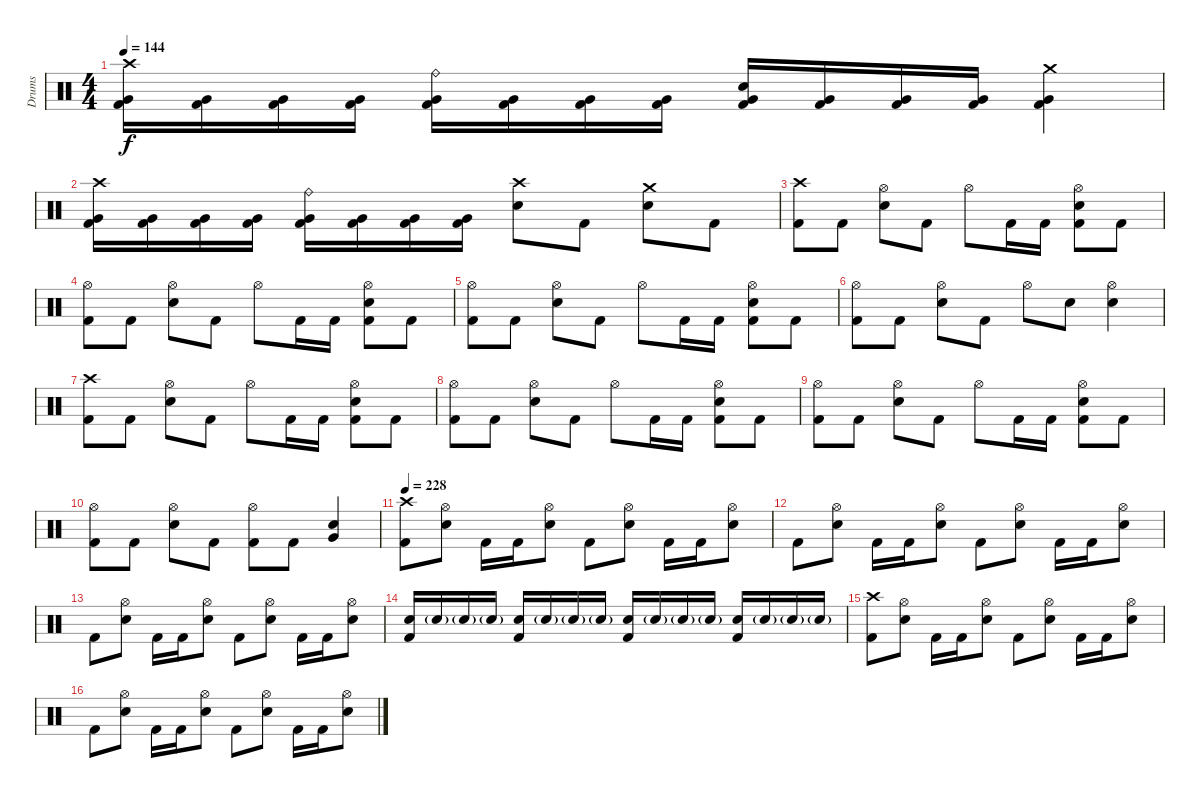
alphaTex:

\track ("Drums" "Drums") {instrument percussion}
\staff {score}
\articulation defaults
\ts (4 4)
\tempo 144
\clef neutral
\ks c
("Crash high (hit)" "Very Low Tom (hit)" "Kick (hit) 2").16{dy f} ("Very Low Tom (hit)" "Kick (hit) 2").16 ("Very Low Tom (hit)" "Kick (hit) 2").16 ("Very Low Tom (hit)" "Kick (hit) 2").16 ("Ride (bell)" "Very Low Tom (hit)" "Kick (hit) 2").16 ("Very Low Tom (hit)" "Kick (hit) 2").16 ("Very Low Tom (hit)" "Kick (hit) 2").16 ("Very Low Tom (hit)" "Kick (hit) 2").16 ("Electric Snare (hit)" "Very Low Tom (hit)" "Kick (hit) 2").16 ("Very Low Tom (hit)" "Kick (hit) 2").16 ("Very Low Tom (hit)" "Kick (hit) 2").16 ("Very Low Tom (hit)" "Kick (hit) 2").16 ("Crash medium (hit)" "Very Low Tom (hit)" "Kick (hit) 2").4 |
("Crash high (hit)" "Very Low Tom (hit)" "Kick (hit) 2").16 ("Very Low Tom (hit)" "Kick (hit) 2").16 ("Very Low Tom (hit)" "Kick (hit) 2").16 ("Very Low Tom (hit)" "Kick (hit) 2").16 ("Ride (bell)" "Very Low Tom (hit)" "Kick (hit) 2").16 ("Very Low Tom (hit)" "Kick (hit) 2").16 ("Very Low Tom (hit)" "Kick (hit) 2").16 ("Very Low Tom (hit)" "Kick (hit) 2").16 ("Crash high (hit)" "Electric Snare (hit)").8 "Kick (hit) 2".8 ("Crash medium (hit)" "Electric Snare (hit)").8 "Kick (hit) 2".8 |
("Crash high (hit)" "Kick (hit) 2").8 "Kick (hit) 2".8 ("Hi-Hat (open)" "Electric Snare (hit)").8 "Kick (hit) 2".8 "Hi-Hat (open)".8 "Kick (hit) 2".16 "Kick (hit) 2".16 ("Hi-Hat (open)" "Electric Snare (hit)" "Kick (hit) 2").8 "Kick (hit) 2".8 |
("Hi-Hat (open)" "Kick (hit) 2").8 "Kick (hit) 2".8 ("Hi-Hat (open)" "Electric Snare (hit)").8 "Kick (hit) 2".8 "Hi-Hat (open)".8 "Kick (hit) 2".16 "Kick (hit) 2".16 ("Hi-Hat (open)" "Electric Snare (hit)" "Kick (hit) 2").8 "Kick (hit) 2".8 |
("Hi-Hat (open)" "Kick (hit) 2").8 "Kick (hit) 2".8 ("Hi-Hat (open)" "Electric Snare (hit)").8 "Kick (hit) 2".8 "Hi-Hat (open)".8 "Kick (hit) 2".16 "Kick (hit) 2".16 ("Hi-Hat (open)" "Electric Snare (hit)" "Kick (hit) 2").8 "Kick (hit) 2".8 |
("Hi-Hat (open)" "Kick (hit) 2").8 "Kick (hit) 2".8 ("Hi-Hat (open)" "Electric Snare (hit)").8 "Kick (hit) 2".8 "Hi-Hat (open)".8 "Electric Snare (hit)".8 ("Hi-Hat (open)" "Electric Snare (hit)").4 |
("Crash high (hit)" "Kick (hit) 2").8 "Kick (hit) 2".8 ("Hi-Hat (open)" "Electric Snare (hit)").8 "Kick (hit) 2".8 "Hi-Hat (open)".8 "Kick (hit) 2".16 "Kick (hit) 2".16 ("Hi-Hat (open)" "Electric Snare (hit)" "Kick (hit) 2").8 "Kick (hit) 2".8 |
("Hi-Hat (open)" "Kick (hit) 2").8 "Kick (hit) 2".8 ("Hi-Hat (open)" "Electric Snare (hit)").8 "Kick (hit) 2".8 "Hi-Hat (open)".8 "Kick (hit) 2".16 "Kick (hit) 2".16 ("Hi-Hat (open)" "Electric Snare (hit)" "Kick (hit) 2").8 "Kick (hit) 2".8 |
("Hi-Hat (open)" "Kick (hit) 2").8 "Kick (hit) 2".8 ("Hi-Hat (open)" "Electric Snare (hit)").8 "Kick (hit) 2".8 "Hi-Hat (open)".8 "Kick (hit) 2".16 "Kick (hit) 2".16 ("Hi-Hat (open)" "Electric Snare (hit)" "Kick (hit) 2").8 "Kick (hit) 2".8 |
("Hi-Hat (open)" "Kick (hit) 2").8 "Kick (hit) 2".8 ("Hi-Hat (open)" "Electric Snare (hit)").8 "Kick (hit) 2".8 ("Hi-Hat (open)" "Kick (hit) 2").8 "Kick (hit) 2".8 ("Electric Snare (hit)" "Very Low Tom (hit)").4 |
\tempo 228
("Crash high (hit)" "Kick (hit) 2").8 ("Hi-Hat (open)" "Electric Snare (hit)").8 "Kick (hit) 2".16 "Kick (hit) 2".16 ("Hi-Hat (open)" "Electric Snare (hit)").8 "Kick (hit) 2".8 ("Hi-Hat (open)" "Electric Snare (hit)").8 "Kick (hit) 2".16 "Kick (hit) 2".16 ("Hi-Hat (open)" "Electric Snare (hit)").8 |
"Kick (hit) 2".8 ("Hi-Hat (open)" "Electric Snare (hit)").8 "Kick (hit) 2".16 "Kick (hit) 2".16 ("Hi-Hat (open)" "Electric Snare (hit)").8 "Kick (hit) 2".8 ("Hi-Hat (open)" "Electric Snare (hit)").8 "Kick (hit) 2".16 "Kick (hit) 2".16 ("Hi-Hat (open)" "Electric Snare (hit)").8 |
"Kick (hit) 2".8 ("Hi-Hat (open)" "Electric Snare (hit)").8 "Kick (hit) 2".16 "Kick (hit) 2".16 ("Hi-Hat (open)" "Electric Snare (hit)").8 "Kick (hit) 2".8 ("Hi-Hat (open)" "Electric Snare (hit)").8 "Kick (hit) 2".16 "Kick (hit) 2".16 ("Hi-Hat (open)" "Electric Snare (hit)").8 |
("Electric Snare (hit)" "Kick (hit) 2").16 "Electric Snare (hit)"{g}.16 "Electric Snare (hit)"{g}.16 "Electric Snare (hit)"{g}.16 ("Electric Snare (hit)" "Kick (hit) 2").16 "Electric Snare (hit)"{g}.16 "Electric Snare (hit)"{g}.16 "Electric Snare (hit)"{g}.16 ("Electric Snare (hit)" "Kick (hit) 2").16 "Electric Snare (hit)"{g}.16 "Electric Snare (hit)"{g}.16 "Electric Snare (hit)"{g}.16 ("Electric Snare (hit)" "Kick (hit) 2").16 "Electric Snare (hit)"{g}.16 "Electric Snare (hit)"{g}.16 "Electric Snare (hit)"{g}.16 |
("Crash high (hit)" "Kick (hit) 2").8 ("Hi-Hat (open)" "Electric Snare (hit)").8 "Kick (hit) 2".16 "Kick (hit) 2".16 ("Hi-Hat (open)" "Electric Snare (hit)").8 "Kick (hit) 2".8 ("Hi-Hat (open)" "Electric Snare (hit)").8 "Kick (hit) 2".16 "Kick (hit) 2".16 ("Hi-Hat (open)" "Electric Snare (hit)").8 |
"Kick (hit) 2".8 ("Hi-Hat (open)" "Electric Snare (hit)").8 "Kick (hit) 2".16 "Kick (hit) 2".16 ("Hi-Hat (open)" "Electric Snare (hit)").8 "Kick (hit) 2".8 ("Hi-Hat (open)" "Electric Snare (hit)").8 "Kick (hit) 2".16 "Kick (hit) 2".16 ("Hi-Hat (open)" "Electric Snare (hit)").8
